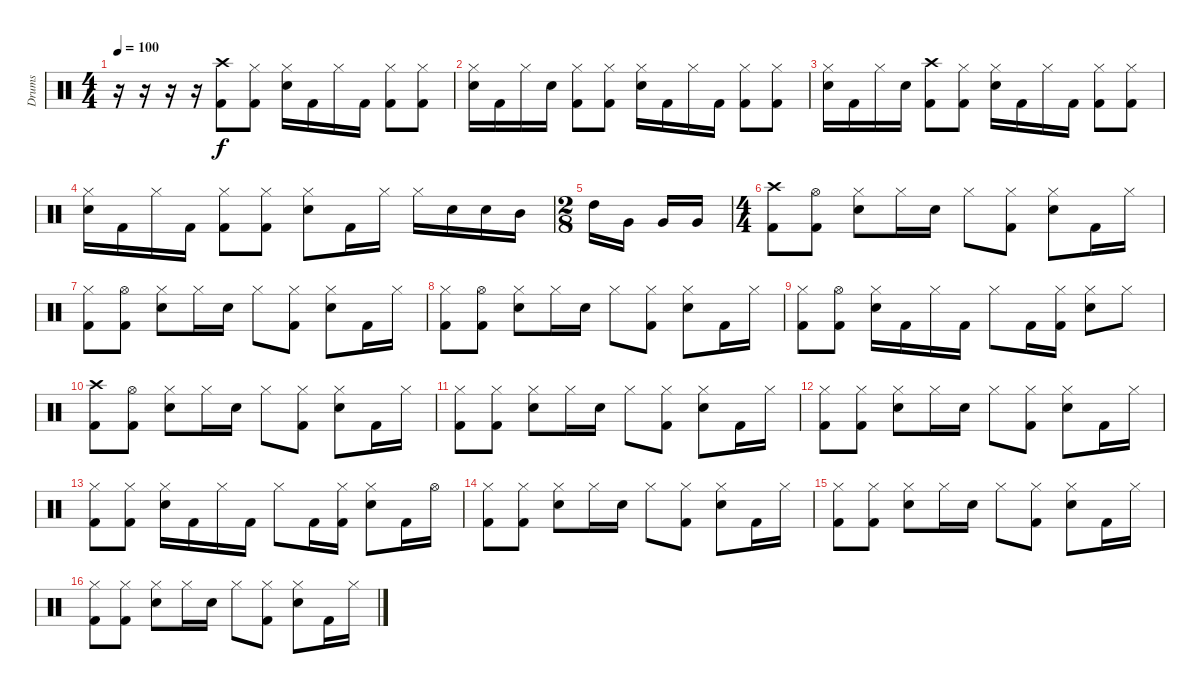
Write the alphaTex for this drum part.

\track ("Drums" "Drums") {instrument percussion}
\staff {score}
\articulation defaults
\ts (4 4)
\tempo 100
\clef neutral
\ks c
r.16{dy f} r.16 r.16 r.16 ("Crash high (hit)" "Kick (hit) 2").8 ("Hi-Hat (closed)" "Kick (hit) 2").8 ("Hi-Hat (closed)" "Snare (hit) 2").16 "Kick (hit) 2".16 "Hi-Hat (closed)".16 "Kick (hit) 2".16 ("Hi-Hat (closed)" "Kick (hit) 2").8 ("Hi-Hat (closed)" "Kick (hit) 2").8 |
("Hi-Hat (closed)" "Snare (hit) 2").16 "Kick (hit) 2".16 "Hi-Hat (closed)".16 "Snare (hit) 2".16 ("Hi-Hat (closed)" "Kick (hit) 2").8 ("Hi-Hat (closed)" "Kick (hit) 2").8 ("Hi-Hat (closed)" "Snare (hit) 2").16 "Kick (hit) 2".16 "Hi-Hat (closed)".16 "Kick (hit) 2".16 ("Hi-Hat (closed)" "Kick (hit) 2").8 ("Hi-Hat (closed)" "Kick (hit) 2").8 |
("Hi-Hat (closed)" "Snare (hit) 2").16 "Kick (hit) 2".16 "Hi-Hat (closed)".16 "Snare (hit) 2".16 ("Crash high (hit)" "Kick (hit) 2").8 ("Hi-Hat (closed)" "Kick (hit) 2").8 ("Hi-Hat (closed)" "Snare (hit) 2").16 "Kick (hit) 2".16 "Hi-Hat (closed)".16 "Kick (hit) 2".16 ("Hi-Hat (closed)" "Kick (hit) 2").8 ("Hi-Hat (closed)" "Kick (hit) 2").8 |
("Hi-Hat (closed)" "Snare (hit) 2").16 "Kick (hit) 2".16 "Hi-Hat (closed)".16 "Kick (hit) 2".16 ("Hi-Hat (closed)" "Kick (hit) 2").8 ("Hi-Hat (closed)" "Kick (hit) 2").8 ("Hi-Hat (closed)" "Snare (hit) 2").8 "Kick (hit) 2".16 "Hi-Hat (closed)".16 "Hi-Hat (closed)".16 "Snare (hit) 2".16 "Snare (hit) 2".16 "Mid Tom (hit)".16 |
\ts (2 8)
"High Tom (hit)".16 "Very Low Tom (hit)".16 "Very Low Tom (hit)".16 "Very Low Tom (hit)".16 |
\ts (4 4)
("Crash high (hit)" "Kick (hit) 2").8 ("Hi-Hat (open)" "Kick (hit) 2").8 ("Hi-Hat (closed)" "Snare (hit) 2").8 "Hi-Hat (closed)".16 "Snare (hit) 2".16 "Hi-Hat (closed)".8 ("Hi-Hat (closed)" "Kick (hit) 2").8 ("Hi-Hat (closed)" "Snare (hit) 2").8 "Kick (hit) 2".16 "Hi-Hat (closed)".16 |
("Hi-Hat (closed)" "Kick (hit) 2").8 ("Hi-Hat (open)" "Kick (hit) 2").8 ("Hi-Hat (closed)" "Snare (hit) 2").8 "Hi-Hat (closed)".16 "Snare (hit) 2".16 "Hi-Hat (closed)".8 ("Hi-Hat (closed)" "Kick (hit) 2").8 ("Hi-Hat (closed)" "Snare (hit) 2").8 "Kick (hit) 2".16 "Hi-Hat (closed)".16 |
("Hi-Hat (closed)" "Kick (hit) 2").8 ("Hi-Hat (open)" "Kick (hit) 2").8 ("Hi-Hat (closed)" "Snare (hit) 2").8 "Hi-Hat (closed)".16 "Snare (hit) 2".16 "Hi-Hat (closed)".8 ("Hi-Hat (closed)" "Kick (hit) 2").8 ("Hi-Hat (closed)" "Snare (hit) 2").8 "Kick (hit) 2".16 "Hi-Hat (closed)".16 |
("Hi-Hat (closed)" "Kick (hit) 2").8 ("Hi-Hat (open)" "Kick (hit) 2").8 ("Hi-Hat (closed)" "Snare (hit) 2").16 "Kick (hit) 2".16 "Hi-Hat (closed)".16 "Kick (hit) 2".16 "Hi-Hat (closed)".8 "Kick (hit) 2".16 ("Hi-Hat (closed)" "Kick (hit) 2").16 ("Hi-Hat (closed)" "Snare (hit) 2").8 "Hi-Hat (closed)".8 |
("Crash high (hit)" "Kick (hit) 2").8 ("Hi-Hat (open)" "Kick (hit) 2").8 ("Hi-Hat (closed)" "Snare (hit) 2").8 "Hi-Hat (closed)".16 "Snare (hit) 2".16 "Hi-Hat (closed)".8 ("Hi-Hat (closed)" "Kick (hit) 2").8 ("Hi-Hat (closed)" "Snare (hit) 2").8 "Kick (hit) 2".16 "Hi-Hat (closed)".16 |
("Hi-Hat (closed)" "Kick (hit) 2").8 ("Hi-Hat (closed)" "Kick (hit) 2").8 ("Hi-Hat (closed)" "Snare (hit) 2").8 "Hi-Hat (closed)".16 "Snare (hit) 2".16 "Hi-Hat (closed)".8 ("Hi-Hat (closed)" "Kick (hit) 2").8 ("Hi-Hat (closed)" "Snare (hit) 2").8 "Kick (hit) 2".16 "Hi-Hat (closed)".16 |
("Hi-Hat (closed)" "Kick (hit) 2").8 ("Hi-Hat (closed)" "Kick (hit) 2").8 ("Hi-Hat (closed)" "Snare (hit) 2").8 "Hi-Hat (closed)".16 "Snare (hit) 2".16 "Hi-Hat (closed)".8 ("Hi-Hat (closed)" "Kick (hit) 2").8 ("Hi-Hat (closed)" "Snare (hit) 2").8 "Kick (hit) 2".16 "Hi-Hat (closed)".16 |
("Hi-Hat (closed)" "Kick (hit) 2").8 ("Hi-Hat (closed)" "Kick (hit) 2").8 ("Hi-Hat (closed)" "Snare (hit) 2").16 "Kick (hit) 2".16 "Hi-Hat (closed)".16 "Kick (hit) 2".16 "Hi-Hat (closed)".8 "Kick (hit) 2".16 ("Hi-Hat (closed)" "Kick (hit) 2").16 ("Hi-Hat (closed)" "Snare (hit) 2").8 "Kick (hit) 2".16 "Hi-Hat (open)".16 |
("Hi-Hat (closed)" "Kick (hit) 2").8 ("Hi-Hat (closed)" "Kick (hit) 2").8 ("Hi-Hat (closed)" "Snare (hit) 2").8 "Hi-Hat (closed)".16 "Snare (hit) 2".16 "Hi-Hat (closed)".8 ("Hi-Hat (closed)" "Kick (hit) 2").8 ("Hi-Hat (closed)" "Snare (hit) 2").8 "Kick (hit) 2".16 "Hi-Hat (closed)".16 |
("Hi-Hat (closed)" "Kick (hit) 2").8 ("Hi-Hat (closed)" "Kick (hit) 2").8 ("Hi-Hat (closed)" "Snare (hit) 2").8 "Hi-Hat (closed)".16 "Snare (hit) 2".16 "Hi-Hat (closed)".8 ("Hi-Hat (closed)" "Kick (hit) 2").8 ("Hi-Hat (closed)" "Snare (hit) 2").8 "Kick (hit) 2".16 "Hi-Hat (closed)".16 |
("Hi-Hat (closed)" "Kick (hit) 2").8 ("Hi-Hat (closed)" "Kick (hit) 2").8 ("Hi-Hat (closed)" "Snare (hit) 2").8 "Hi-Hat (closed)".16 "Snare (hit) 2".16 "Hi-Hat (closed)".8 ("Hi-Hat (closed)" "Kick (hit) 2").8 ("Hi-Hat (closed)" "Snare (hit) 2").8 "Kick (hit) 2".16 "Hi-Hat (closed)".16
